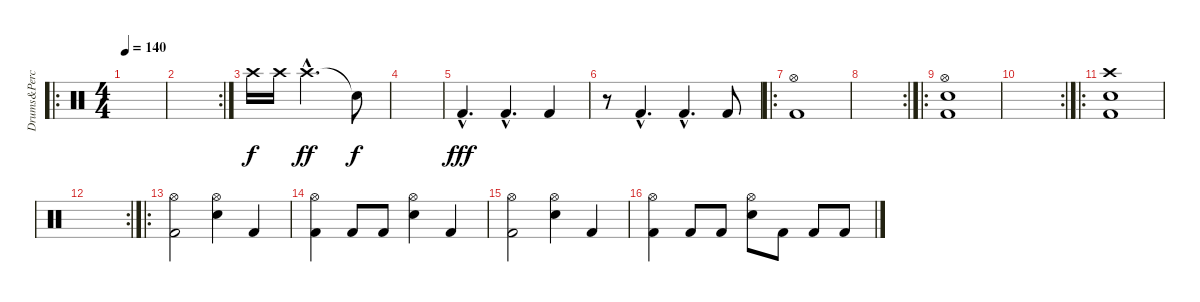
\track ("Drums&Percusion" "Drums&Perc") {instrument percussion}
\staff {score}
\articulation defaults
\ro
\ts (4 4)
\tempo 140
\clef neutral
\ks c
|
\rc 2
|
"Crash high (hit)".16 "Crash high (hit)".16{dy f} "Crash high (hit)"{hac}.2{d dy ff} "Snare (hit)"{t}.8{dy f} |
|
"Kick (hit) 2"{hac}.4{d dy fff} "Kick (hit) 2"{hac}.4{d} "Kick (hit) 2".4 |
r.8 "Kick (hit) 2"{hac}.4{d} "Kick (hit) 2"{hac}.4{d} "Kick (hit) 2".8 |
\ro
("Hi-Hat (open)" "Kick (hit) 2").1 |
\rc 2
|
\ro
("Hi-Hat (open)" "Snare (hit) 2" "Kick (hit) 2").1 |
\rc 2
|
\ro
("Crash high (hit)" "Snare (hit) 2" "Kick (hit) 2").1 |
\rc 2
|
\ro
("Hi-Hat (open)" "Kick (hit) 2").2 ("Hi-Hat (open)" "Snare (hit) 2").4 "Kick (hit) 2".4 |
("Hi-Hat (open)" "Kick (hit) 2").4 "Kick (hit) 2".8 "Kick (hit) 2".8 ("Hi-Hat (open)" "Snare (hit) 2").4 "Kick (hit) 2".4 |
("Hi-Hat (open)" "Kick (hit) 2").2 ("Hi-Hat (open)" "Snare (hit) 2").4 "Kick (hit) 2".4 |
("Hi-Hat (open)" "Kick (hit) 2").4 "Kick (hit) 2".8 "Kick (hit) 2".8 ("Hi-Hat (open)" "Snare (hit) 2").8 "Kick (hit) 2".8 "Kick (hit) 2".8 "Kick (hit) 2".8
